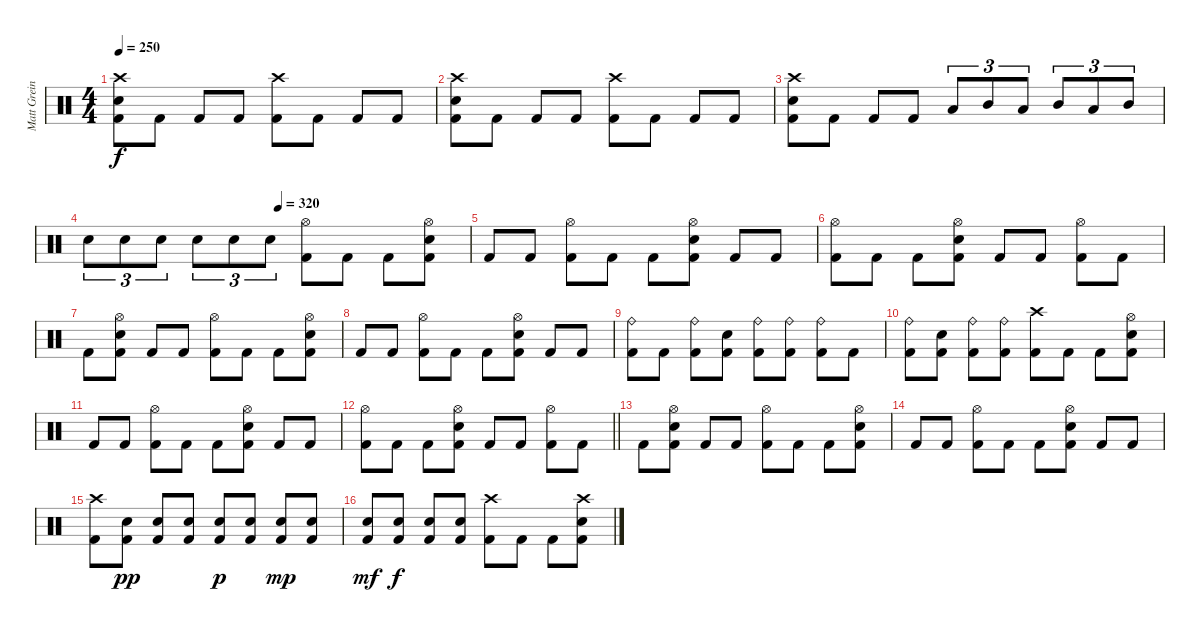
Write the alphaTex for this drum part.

\track ("Matt Greiner (Drums)" "Matt Grein") {instrument percussion}
\staff {score}
\articulation defaults
\ts (4 4)
\tempo 250
\clef neutral
\ks c
("Crash high (hit)" "Electric Snare (hit)" "Kick (hit) 2").8{dy f} "Kick (hit) 2".8 "Kick (hit) 2".8 "Kick (hit) 2".8 ("Crash high (hit)" "Kick (hit) 2").8 "Kick (hit) 2".8 "Kick (hit) 2".8 "Kick (hit) 2".8 |
("Crash high (hit)" "Electric Snare (hit)" "Kick (hit) 2").8 "Kick (hit) 2".8 "Kick (hit) 2".8 "Kick (hit) 2".8 ("Crash high (hit)" "Kick (hit) 2").8 "Kick (hit) 2".8 "Kick (hit) 2".8 "Kick (hit) 2".8 |
("Crash high (hit)" "Electric Snare (hit)" "Kick (hit) 2").8 "Kick (hit) 2".8 "Kick (hit) 2".8 "Kick (hit) 2".8 "Low Tom (hit)".8{tu (3 2)} "Mid Tom (hit)".8{tu (3 2)} "Low Tom (hit)".8{tu (3 2)} "Mid Tom (hit)".8{tu (3 2)} "Low Tom (hit)".8{tu (3 2)} "Mid Tom (hit)".8{tu (3 2)} |
\tempo (320 0.5)
"Electric Snare (hit)".8{tu (3 2)} "Electric Snare (hit)".8{tu (3 2)} "Electric Snare (hit)".8{tu (3 2)} "Electric Snare (hit)".8{tu (3 2)} "Electric Snare (hit)".8{tu (3 2)} "Electric Snare (hit)".8{tu (3 2)} ("Hi-Hat (open)" "Kick (hit) 2").8 "Kick (hit) 2".8 "Kick (hit) 2".8 ("Hi-Hat (open)" "Electric Snare (hit)" "Kick (hit) 2").8 |
"Kick (hit) 2".8 "Kick (hit) 2".8 ("Hi-Hat (open)" "Kick (hit) 2").8 "Kick (hit) 2".8 "Kick (hit) 2".8 ("Hi-Hat (open)" "Electric Snare (hit)" "Kick (hit) 2").8 "Kick (hit) 2".8 "Kick (hit) 2".8 |
("Hi-Hat (open)" "Kick (hit) 2").8 "Kick (hit) 2".8 "Kick (hit) 2".8 ("Hi-Hat (open)" "Electric Snare (hit)" "Kick (hit) 2").8 "Kick (hit) 2".8 "Kick (hit) 2".8 ("Hi-Hat (open)" "Kick (hit) 2").8 "Kick (hit) 2".8 |
"Kick (hit) 2".8 ("Hi-Hat (open)" "Electric Snare (hit)" "Kick (hit) 2").8 "Kick (hit) 2".8 "Kick (hit) 2".8 ("Hi-Hat (open)" "Kick (hit) 2").8 "Kick (hit) 2".8 "Kick (hit) 2".8 ("Hi-Hat (open)" "Electric Snare (hit)" "Kick (hit) 2").8 |
"Kick (hit) 2".8 "Kick (hit) 2".8 ("Hi-Hat (open)" "Kick (hit) 2").8 "Kick (hit) 2".8 "Kick (hit) 2".8 ("Hi-Hat (open)" "Electric Snare (hit)" "Kick (hit) 2").8 "Kick (hit) 2".8 "Kick (hit) 2".8 |
("Ride (bell)" "Kick (hit) 2").8 "Kick (hit) 2".8 ("Ride (bell)" "Kick (hit) 2").8 ("Electric Snare (hit)" "Kick (hit) 2").8 ("Ride (bell)" "Kick (hit) 2").8 ("Ride (bell)" "Kick (hit) 2").8 ("Ride (bell)" "Kick (hit) 2").8 "Kick (hit) 2".8 |
("Ride (bell)" "Kick (hit) 2").8 ("Electric Snare (hit)" "Kick (hit) 2").8 ("Ride (bell)" "Kick (hit) 2").8 ("Ride (bell)" "Kick (hit) 2").8 ("Crash high (hit)" "Kick (hit) 2").8 "Kick (hit) 2".8 "Kick (hit) 2".8 ("Hi-Hat (open)" "Electric Snare (hit)" "Kick (hit) 2").8 |
"Kick (hit) 2".8 "Kick (hit) 2".8 ("Hi-Hat (open)" "Kick (hit) 2").8 "Kick (hit) 2".8 "Kick (hit) 2".8 ("Hi-Hat (open)" "Electric Snare (hit)" "Kick (hit) 2").8 "Kick (hit) 2".8 "Kick (hit) 2".8 |
\barLineRight lightlight
("Hi-Hat (open)" "Kick (hit) 2").8 "Kick (hit) 2".8 "Kick (hit) 2".8 ("Hi-Hat (open)" "Electric Snare (hit)" "Kick (hit) 2").8 "Kick (hit) 2".8 "Kick (hit) 2".8 ("Hi-Hat (open)" "Kick (hit) 2").8 "Kick (hit) 2".8 |
"Kick (hit) 2".8 ("Hi-Hat (open)" "Electric Snare (hit)" "Kick (hit) 2").8 "Kick (hit) 2".8 "Kick (hit) 2".8 ("Hi-Hat (open)" "Kick (hit) 2").8 "Kick (hit) 2".8 "Kick (hit) 2".8 ("Hi-Hat (open)" "Electric Snare (hit)" "Kick (hit) 2").8 |
"Kick (hit) 2".8 "Kick (hit) 2".8 ("Hi-Hat (open)" "Kick (hit) 2").8 "Kick (hit) 2".8 "Kick (hit) 2".8 ("Hi-Hat (open)" "Electric Snare (hit)" "Kick (hit) 2").8 "Kick (hit) 2".8 "Kick (hit) 2".8 |
("Crash high (hit)" "Kick (hit) 2").8 ("Electric Snare (hit)" "Kick (hit) 2").8{dy pp} ("Electric Snare (hit)" "Kick (hit) 2").8 ("Electric Snare (hit)" "Kick (hit) 2").8 ("Electric Snare (hit)" "Kick (hit) 2").8{dy p} ("Electric Snare (hit)" "Kick (hit) 2").8 ("Electric Snare (hit)" "Kick (hit) 2").8{dy mp} ("Electric Snare (hit)" "Kick (hit) 2").8 |
("Electric Snare (hit)" "Kick (hit) 2").8{dy mf} ("Electric Snare (hit)" "Kick (hit) 2").8{dy f} ("Electric Snare (hit)" "Kick (hit) 2").8 ("Electric Snare (hit)" "Kick (hit) 2").8 ("Crash high (hit)" "Kick (hit) 2").8 "Kick (hit) 2".8 "Kick (hit) 2".8 ("Crash high (hit)" "Electric Snare (hit)" "Kick (hit) 2").8
